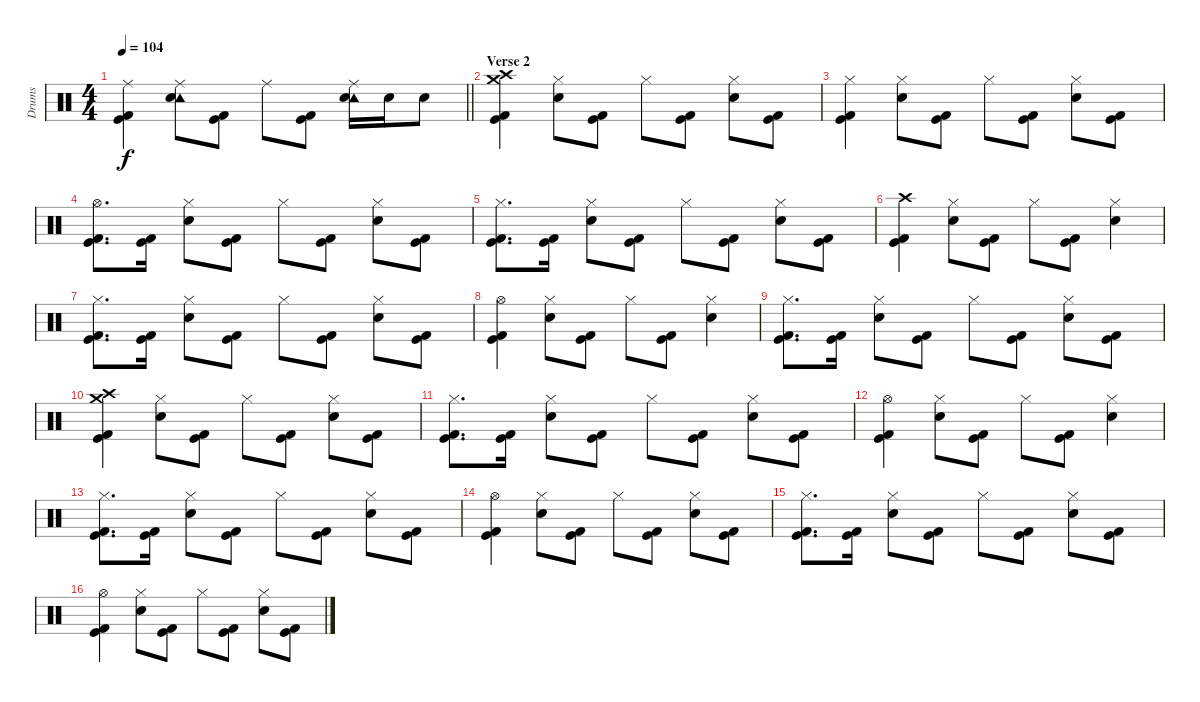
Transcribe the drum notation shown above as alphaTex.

\track ("Drums" "Drums") {instrument percussion}
\staff {score}
\articulation defaults
\ts (4 4)
\tempo 104
\clef neutral
\barLineRight lightlight
\ks c
("Ride (middle)" "Kick (hit)" "Kick (hit) 2").4{dy f} ("Ride (middle)" "Tambourine (hit)" "Electric Snare (hit)").8 ("Kick (hit)" "Kick (hit) 2").8 "Ride (middle)".8 ("Kick (hit)" "Kick (hit) 2").8 ("Ride (middle)" "Tambourine (hit)" "Electric Snare (hit)").16 "Electric Snare (hit)".16 "Electric Snare (hit)".8 |
\section ("" "Verse 2")
("Crash medium (hit)" "Crash high (hit)" "Kick (hit)" "Kick (hit) 2").4 ("Hi-Hat (closed)" "Electric Snare (hit)").8 ("Kick (hit)" "Kick (hit) 2").8 "Hi-Hat (closed)".8 ("Kick (hit)" "Kick (hit) 2").8 ("Hi-Hat (closed)" "Electric Snare (hit)").8 ("Kick (hit)" "Kick (hit) 2").8 |
("Hi-Hat (closed)" "Kick (hit)" "Kick (hit) 2").4 ("Hi-Hat (closed)" "Electric Snare (hit)").8 ("Kick (hit)" "Kick (hit) 2").8 "Hi-Hat (closed)".8 ("Kick (hit)" "Kick (hit) 2").8 ("Hi-Hat (closed)" "Electric Snare (hit)").8 ("Kick (hit)" "Kick (hit) 2").8 |
("Hi-Hat (open)" "Kick (hit)" "Kick (hit) 2").8{d} ("Kick (hit)" "Kick (hit) 2").16 ("Hi-Hat (closed)" "Electric Snare (hit)").8 ("Kick (hit)" "Kick (hit) 2").8 "Hi-Hat (closed)".8 ("Kick (hit)" "Kick (hit) 2").8 ("Hi-Hat (closed)" "Electric Snare (hit)").8 ("Kick (hit)" "Kick (hit) 2").8 |
("Hi-Hat (closed)" "Kick (hit)" "Kick (hit) 2").8{d} ("Kick (hit)" "Kick (hit) 2").16 ("Hi-Hat (closed)" "Electric Snare (hit)").8 ("Kick (hit)" "Kick (hit) 2").8 "Hi-Hat (closed)".8 ("Kick (hit)" "Kick (hit) 2").8 ("Hi-Hat (closed)" "Electric Snare (hit)").8 ("Kick (hit)" "Kick (hit) 2").8 |
("Crash high (hit)" "Kick (hit)" "Kick (hit) 2").4 ("Hi-Hat (closed)" "Electric Snare (hit)").8 ("Kick (hit)" "Kick (hit) 2").8 "Hi-Hat (closed)".8 ("Kick (hit)" "Kick (hit) 2").8 ("Hi-Hat (closed)" "Electric Snare (hit)").4 |
("Hi-Hat (closed)" "Kick (hit)" "Kick (hit) 2").8{d} ("Kick (hit)" "Kick (hit) 2").16 ("Hi-Hat (closed)" "Electric Snare (hit)").8 ("Kick (hit)" "Kick (hit) 2").8 "Hi-Hat (closed)".8 ("Kick (hit)" "Kick (hit) 2").8 ("Hi-Hat (closed)" "Electric Snare (hit)").8 ("Kick (hit)" "Kick (hit) 2").8 |
("Hi-Hat (open)" "Kick (hit)" "Kick (hit) 2").4 ("Hi-Hat (closed)" "Electric Snare (hit)").8 ("Kick (hit)" "Kick (hit) 2").8 "Hi-Hat (closed)".8 ("Kick (hit)" "Kick (hit) 2").8 ("Hi-Hat (closed)" "Electric Snare (hit)").4 |
("Hi-Hat (closed)" "Kick (hit)" "Kick (hit) 2").8{d} ("Kick (hit)" "Kick (hit) 2").16 ("Hi-Hat (closed)" "Electric Snare (hit)").8 ("Kick (hit)" "Kick (hit) 2").8 "Hi-Hat (closed)".8 ("Kick (hit)" "Kick (hit) 2").8 ("Hi-Hat (closed)" "Electric Snare (hit)").8 ("Kick (hit)" "Kick (hit) 2").8 |
("Crash high (hit)" "Crash medium (hit)" "Kick (hit)" "Kick (hit) 2").4 ("Hi-Hat (closed)" "Electric Snare (hit)").8 ("Kick (hit)" "Kick (hit) 2").8 "Hi-Hat (closed)".8 ("Kick (hit)" "Kick (hit) 2").8 ("Hi-Hat (closed)" "Electric Snare (hit)").8 ("Kick (hit)" "Kick (hit) 2").8 |
("Hi-Hat (closed)" "Kick (hit)" "Kick (hit) 2").8{d} ("Kick (hit)" "Kick (hit) 2").16 ("Hi-Hat (closed)" "Electric Snare (hit)").8 ("Kick (hit)" "Kick (hit) 2").8 "Hi-Hat (closed)".8 ("Kick (hit)" "Kick (hit) 2").8 ("Hi-Hat (closed)" "Electric Snare (hit)").8 ("Kick (hit)" "Kick (hit) 2").8 |
("Hi-Hat (open)" "Kick (hit)" "Kick (hit) 2").4 ("Hi-Hat (closed)" "Electric Snare (hit)").8 ("Kick (hit)" "Kick (hit) 2").8 "Hi-Hat (closed)".8 ("Kick (hit)" "Kick (hit) 2").8 ("Hi-Hat (closed)" "Electric Snare (hit)").4 |
("Hi-Hat (closed)" "Kick (hit)" "Kick (hit) 2").8{d} ("Kick (hit)" "Kick (hit) 2").16 ("Hi-Hat (closed)" "Electric Snare (hit)").8 ("Kick (hit)" "Kick (hit) 2").8 "Hi-Hat (closed)".8 ("Kick (hit)" "Kick (hit) 2").8 ("Hi-Hat (closed)" "Electric Snare (hit)").8 ("Kick (hit)" "Kick (hit) 2").8 |
("Hi-Hat (open)" "Kick (hit)" "Kick (hit) 2").4 ("Hi-Hat (closed)" "Electric Snare (hit)").8 ("Kick (hit)" "Kick (hit) 2").8 "Hi-Hat (closed)".8 ("Kick (hit)" "Kick (hit) 2").8 ("Hi-Hat (closed)" "Electric Snare (hit)").8 ("Kick (hit)" "Kick (hit) 2").8 |
("Hi-Hat (closed)" "Kick (hit)" "Kick (hit) 2").8{d} ("Kick (hit)" "Kick (hit) 2").16 ("Hi-Hat (closed)" "Electric Snare (hit)").8 ("Kick (hit)" "Kick (hit) 2").8 "Hi-Hat (closed)".8 ("Kick (hit)" "Kick (hit) 2").8 ("Hi-Hat (closed)" "Electric Snare (hit)").8 ("Kick (hit)" "Kick (hit) 2").8 |
("Hi-Hat (open)" "Kick (hit)" "Kick (hit) 2").4 ("Hi-Hat (closed)" "Electric Snare (hit)").8 ("Kick (hit)" "Kick (hit) 2").8 "Hi-Hat (closed)".8 ("Kick (hit)" "Kick (hit) 2").8 ("Hi-Hat (closed)" "Electric Snare (hit)").8 ("Kick (hit)" "Kick (hit) 2").8
